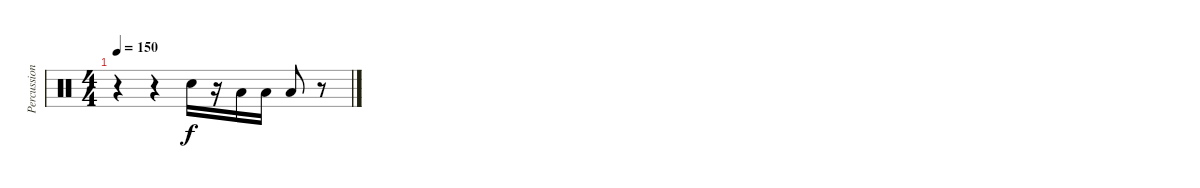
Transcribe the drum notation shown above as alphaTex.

\track ("Percussion" "Percussion") {instrument percussion}
\staff {score}
\articulation defaults
\ts (4 4)
\tempo 150
\clef neutral
\ks c
r.4{dy f} r.4 "Snare (hit) 2".16 r.16 "Low Tom (hit)".16 "Low Tom (hit)".16 "Low Floor Tom (hit)".8 r.8
